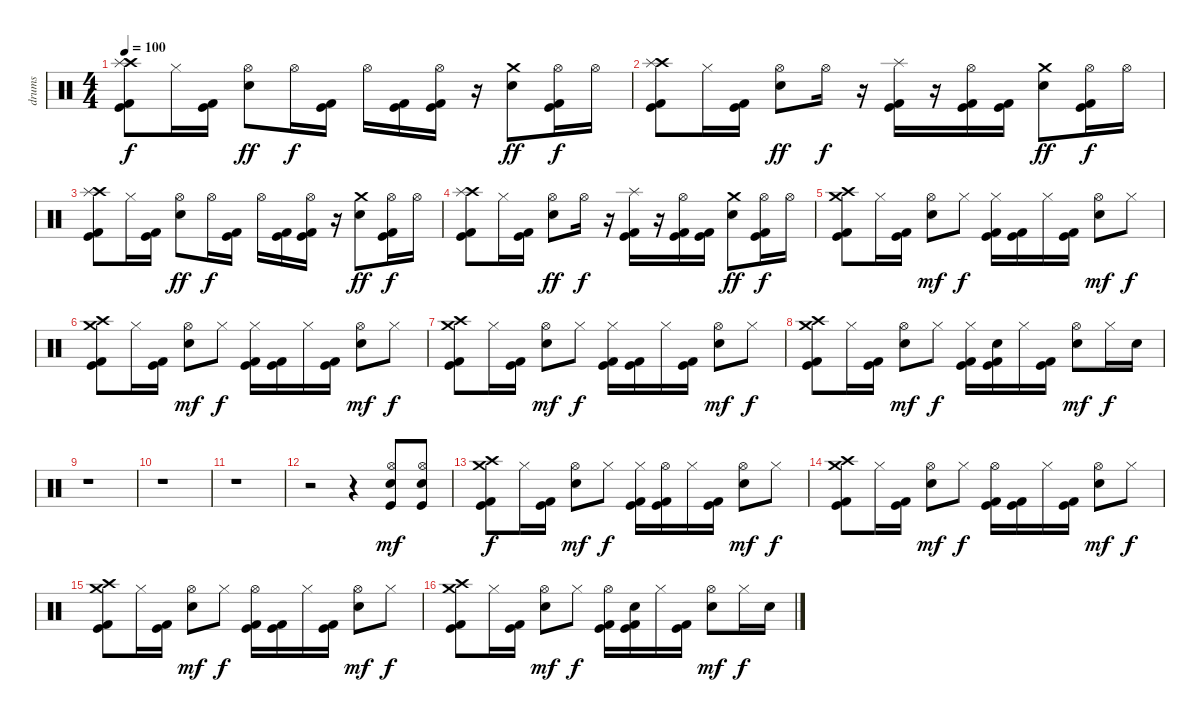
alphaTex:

\track ("drums" "drums") {instrument percussion}
\staff {score}
\articulation defaults
\ts (4 4)
\tempo 100
\clef neutral
\ks c
("Crash high (hit)" "Splash (hit)" "Kick (hit) 2" "Kick (hit)").8{dy f} "Hi-Hat (closed)".16 ("Kick (hit) 2" "Kick (hit)").16 ("Hi-Hat (open)" "Electric Snare (hit)").8{dy ff} "Hi-Hat (open)".16{dy f} ("Kick (hit) 2" "Kick (hit)").16 "Hi-Hat (open)".16 ("Kick (hit) 2" "Kick (hit)").16 ("Hi-Hat (open)" "Kick (hit) 2" "Kick (hit)").16 r.16 ("Crash medium (hit)" "Electric Snare (hit)").8{dy ff} ("Hi-Hat (open)" "Kick (hit)" "Kick (hit) 2").16{dy f} "Hi-Hat (open)".16 |
("Crash high (hit)" "Splash (hit)" "Kick (hit) 2" "Kick (hit)").8 "Hi-Hat (closed)".16 ("Kick (hit) 2" "Kick (hit)").16 ("Hi-Hat (open)" "Electric Snare (hit)").8{dy ff} "Hi-Hat (open)".16{dy f} r.16 ("Splash (hit)" "Kick (hit) 2" "Kick (hit)").16 r.16 ("Hi-Hat (open)" "Kick (hit)" "Kick (hit) 2").16 ("Kick (hit)" "Kick (hit) 2").16 ("Crash medium (hit)" "Electric Snare (hit)").8{dy ff} ("Hi-Hat (open)" "Kick (hit)" "Kick (hit) 2").16{dy f} "Hi-Hat (open)".16 |
("Crash high (hit)" "Splash (hit)" "Kick (hit) 2" "Kick (hit)").8 "Hi-Hat (closed)".16 ("Kick (hit) 2" "Kick (hit)").16 ("Hi-Hat (open)" "Electric Snare (hit)").8{dy ff} "Hi-Hat (open)".16{dy f} ("Kick (hit) 2" "Kick (hit)").16 "Hi-Hat (open)".16 ("Kick (hit) 2" "Kick (hit)").16 ("Hi-Hat (open)" "Kick (hit) 2" "Kick (hit)").16 r.16 ("Crash medium (hit)" "Electric Snare (hit)").8{dy ff} ("Hi-Hat (open)" "Kick (hit)" "Kick (hit) 2").16{dy f} "Hi-Hat (open)".16 |
("Crash high (hit)" "Splash (hit)" "Kick (hit) 2" "Kick (hit)").8 "Hi-Hat (closed)".16 ("Kick (hit) 2" "Kick (hit)").16 ("Hi-Hat (open)" "Electric Snare (hit)").8{dy ff} "Hi-Hat (open)".16{dy f} r.16 ("Splash (hit)" "Kick (hit) 2" "Kick (hit)").16 r.16 ("Hi-Hat (open)" "Kick (hit)" "Kick (hit) 2").16 ("Kick (hit)" "Kick (hit) 2").16 ("Crash medium (hit)" "Electric Snare (hit)").8{dy ff} ("Hi-Hat (open)" "Kick (hit)" "Kick (hit) 2").16{dy f} "Hi-Hat (open)".16 |
("Crash high (hit)" "Crash medium (hit)" "Kick (hit) 2" "Kick (hit)").8 "Hi-Hat (closed)".16 ("Kick (hit) 2" "Kick (hit)").16 ("Hi-Hat (open)" "Electric Snare (hit)").8{dy mf} "Hi-Hat (closed)".8{dy f} ("Hi-Hat (closed)" "Kick (hit) 2" "Kick (hit)").16 ("Kick (hit) 2" "Kick (hit)").16 "Hi-Hat (closed)".16 ("Kick (hit) 2" "Kick (hit)").16 ("Hi-Hat (open)" "Electric Snare (hit)").8{dy mf} "Hi-Hat (closed)".8{dy f} |
("Crash high (hit)" "Crash medium (hit)" "Kick (hit) 2" "Kick (hit)").8 "Hi-Hat (closed)".16 ("Kick (hit) 2" "Kick (hit)").16 ("Hi-Hat (open)" "Electric Snare (hit)").8{dy mf} "Hi-Hat (closed)".8{dy f} ("Hi-Hat (closed)" "Kick (hit) 2" "Kick (hit)").16 ("Kick (hit) 2" "Kick (hit)").16 "Hi-Hat (closed)".16 ("Kick (hit) 2" "Kick (hit)").16 ("Hi-Hat (open)" "Electric Snare (hit)").8{dy mf} "Hi-Hat (closed)".8{dy f} |
("Crash high (hit)" "Crash medium (hit)" "Kick (hit) 2" "Kick (hit)").8 "Hi-Hat (closed)".16 ("Kick (hit) 2" "Kick (hit)").16 ("Hi-Hat (open)" "Electric Snare (hit)").8{dy mf} "Hi-Hat (closed)".8{dy f} ("Hi-Hat (closed)" "Kick (hit) 2" "Kick (hit)").16 ("Kick (hit) 2" "Kick (hit)").16 "Hi-Hat (closed)".16 ("Kick (hit) 2" "Kick (hit)").16 ("Hi-Hat (open)" "Electric Snare (hit)").8{dy mf} "Hi-Hat (closed)".8{dy f} |
("Crash high (hit)" "Crash medium (hit)" "Kick (hit) 2" "Kick (hit)").8 "Hi-Hat (closed)".16 ("Kick (hit) 2" "Kick (hit)").16 ("Hi-Hat (open)" "Electric Snare (hit)").8{dy mf} "Hi-Hat (closed)".8{dy f} ("Hi-Hat (closed)" "Kick (hit) 2" "Kick (hit)").16 ("Electric Snare (hit)" "Kick (hit) 2" "Kick (hit)").16 "Hi-Hat (closed)".16 ("Kick (hit) 2" "Kick (hit)").16 ("Hi-Hat (open)" "Electric Snare (hit)").8{dy mf} "Hi-Hat (closed)".16{dy f} "Electric Snare (hit)".16 |
r.1 |
r.1 |
r.1 |
r.2 r.4 ("Hi-Hat (open)" "Electric Snare (hit)" "Kick (hit)").8{dy mf} ("Hi-Hat (open)" "Electric Snare (hit)" "Kick (hit)").8 |
("Crash high (hit)" "Crash medium (hit)" "Kick (hit) 2" "Kick (hit)").8{dy f} "Hi-Hat (closed)".16 ("Kick (hit) 2" "Kick (hit)").16 ("Hi-Hat (open)" "Electric Snare (hit)").8{dy mf} "Hi-Hat (closed)".8{dy f} ("Hi-Hat (closed)" "Kick (hit) 2" "Kick (hit)").16 ("Hi-Hat (open)" "Kick (hit) 2" "Kick (hit)").16 "Hi-Hat (closed)".16 ("Kick (hit) 2" "Kick (hit)").16 ("Hi-Hat (open)" "Electric Snare (hit)").8{dy mf} "Hi-Hat (closed)".8{dy f} |
("Crash high (hit)" "Crash medium (hit)" "Kick (hit) 2" "Kick (hit)").8 "Hi-Hat (closed)".16 ("Kick (hit) 2" "Kick (hit)").16 ("Hi-Hat (open)" "Electric Snare (hit)").8{dy mf} "Hi-Hat (closed)".8{dy f} ("Hi-Hat (open)" "Kick (hit) 2" "Kick (hit)").16 ("Kick (hit) 2" "Kick (hit)").16 "Hi-Hat (closed)".16 ("Kick (hit) 2" "Kick (hit)").16 ("Hi-Hat (open)" "Electric Snare (hit)").8{dy mf} "Hi-Hat (closed)".8{dy f} |
("Crash high (hit)" "Crash medium (hit)" "Kick (hit) 2" "Kick (hit)").8 "Hi-Hat (closed)".16 ("Kick (hit) 2" "Kick (hit)").16 ("Hi-Hat (open)" "Electric Snare (hit)").8{dy mf} "Hi-Hat (closed)".8{dy f} ("Hi-Hat (open)" "Kick (hit) 2" "Kick (hit)").16 ("Kick (hit) 2" "Kick (hit)").16 "Hi-Hat (closed)".16 ("Kick (hit) 2" "Kick (hit)").16 ("Hi-Hat (open)" "Electric Snare (hit)").8{dy mf} "Hi-Hat (closed)".8{dy f} |
("Crash high (hit)" "Crash medium (hit)" "Kick (hit) 2" "Kick (hit)").8 "Hi-Hat (closed)".16 ("Kick (hit) 2" "Kick (hit)").16 ("Hi-Hat (open)" "Electric Snare (hit)").8{dy mf} "Hi-Hat (closed)".8{dy f} ("Hi-Hat (open)" "Kick (hit) 2" "Kick (hit)").16 ("Electric Snare (hit)" "Kick (hit) 2" "Kick (hit)").16 "Hi-Hat (closed)".16 ("Kick (hit) 2" "Kick (hit)").16 ("Hi-Hat (open)" "Electric Snare (hit)").8{dy mf} "Hi-Hat (closed)".16{dy f} "Electric Snare (hit)".16
